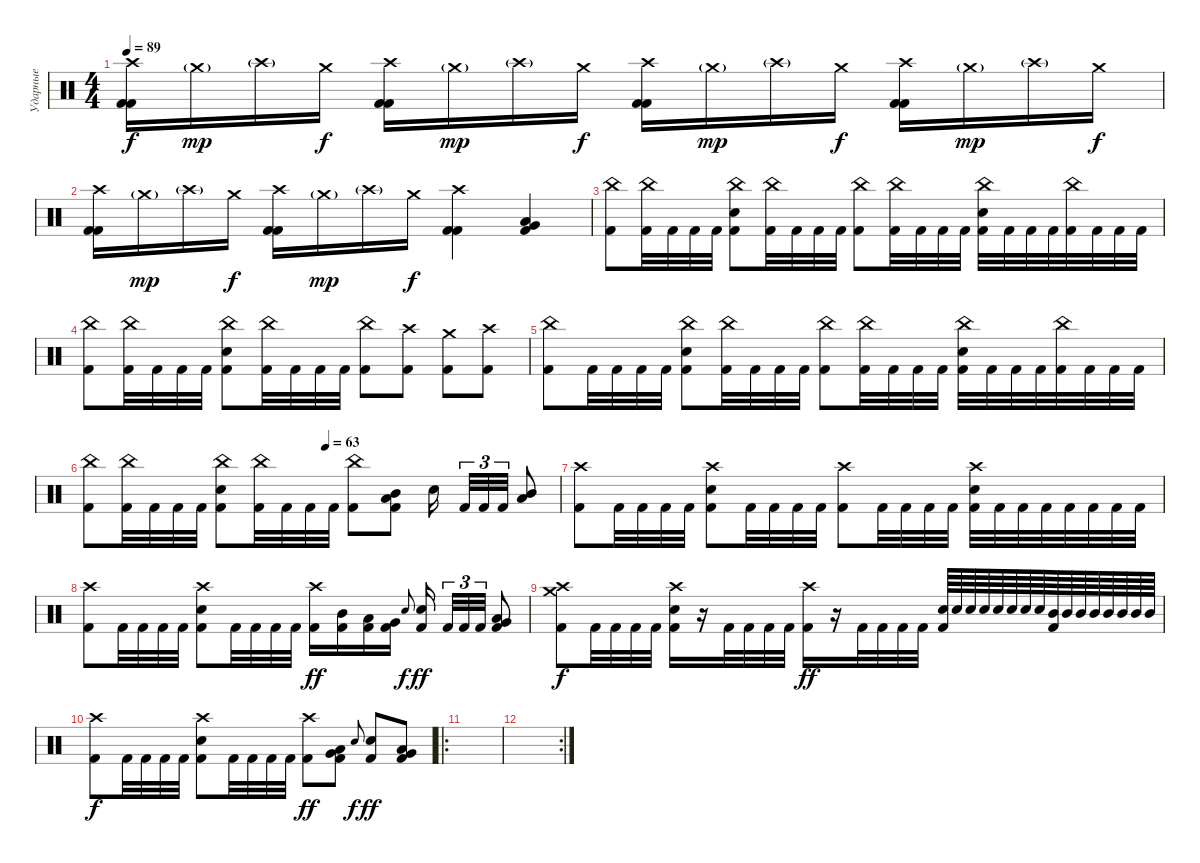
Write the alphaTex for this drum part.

\track ("Ударные" "Ударные") {instrument percussion}
\staff {score}
\articulation defaults
\ts (4 4)
\tempo 89
\clef neutral
\ks c
("Crash high (hit)" "Kick (hit) 2" "Kick (hit) 2").16{dy f} "Crash medium (hit)"{g}.16{dy mp} "Crash high (hit)"{g}.16 "Crash medium (hit)".16{dy f} ("Crash high (hit)" "Kick (hit) 2" "Kick (hit) 2").16 "Crash medium (hit)"{g}.16{dy mp} "Crash high (hit)"{g}.16 "Crash medium (hit)".16{dy f} ("Crash high (hit)" "Kick (hit) 2" "Kick (hit) 2").16 "Crash medium (hit)"{g}.16{dy mp} "Crash high (hit)"{g}.16 "Crash medium (hit)".16{dy f} ("Crash high (hit)" "Kick (hit) 2" "Kick (hit) 2").16 "Crash medium (hit)"{g}.16{dy mp} "Crash high (hit)"{g}.16 "Crash medium (hit)".16{dy f} |
("Crash high (hit)" "Kick (hit) 2" "Kick (hit) 2").16 "Crash medium (hit)"{g}.16{dy mp} "Crash high (hit)"{g}.16 "Crash medium (hit)".16{dy f} ("Crash high (hit)" "Kick (hit) 2" "Kick (hit) 2").16 "Crash medium (hit)"{g}.16{dy mp} "Crash high (hit)"{g}.16 "Crash medium (hit)".16{dy f} ("Crash high (hit)" "Kick (hit) 2" "Kick (hit) 2").4 ("Very Low Tom (hit)" "Low Floor Tom (hit)" "Kick (hit) 2").4 |
("China (hit)" "Kick (hit) 2").8 ("China (hit)" "Kick (hit) 2").32 "Kick (hit) 2".32 "Kick (hit) 2".32 "Kick (hit) 2".32 ("China (hit)" "Electric Snare (hit)" "Kick (hit) 2").8 ("China (hit)" "Kick (hit) 2").32 "Kick (hit) 2".32 "Kick (hit) 2".32 "Kick (hit) 2".32 ("China (hit)" "Kick (hit) 2").8 ("China (hit)" "Kick (hit) 2").32 "Kick (hit) 2".32 "Kick (hit) 2".32 "Kick (hit) 2".32 ("China (hit)" "Electric Snare (hit)" "Kick (hit) 2").32 "Kick (hit) 2".32 "Kick (hit) 2".32 "Kick (hit) 2".32 ("China (hit)" "Kick (hit) 2").32 "Kick (hit) 2".32 "Kick (hit) 2".32 "Kick (hit) 2".32 |
("China (hit)" "Kick (hit) 2").8 ("China (hit)" "Kick (hit) 2").32 "Kick (hit) 2".32 "Kick (hit) 2".32 "Kick (hit) 2".32 ("China (hit)" "Electric Snare (hit)" "Kick (hit) 2").8 ("China (hit)" "Kick (hit) 2").32 "Kick (hit) 2".32 "Kick (hit) 2".32 "Kick (hit) 2".32 ("China (hit)" "Kick (hit) 2").8 ("Crash high (hit)" "Kick (hit) 2").8 ("Crash medium (hit)" "Kick (hit) 2").8 ("Crash high (hit)" "Kick (hit) 2").8 |
("China (hit)" "Kick (hit) 2").8 "Kick (hit) 2".32 "Kick (hit) 2".32 "Kick (hit) 2".32 "Kick (hit) 2".32 ("China (hit)" "Electric Snare (hit)" "Kick (hit) 2").8 ("China (hit)" "Kick (hit) 2").32 "Kick (hit) 2".32 "Kick (hit) 2".32 "Kick (hit) 2".32 ("China (hit)" "Kick (hit) 2").8 ("China (hit)" "Kick (hit) 2").32 "Kick (hit) 2".32 "Kick (hit) 2".32 "Kick (hit) 2".32 ("China (hit)" "Electric Snare (hit)" "Kick (hit) 2").32 "Kick (hit) 2".32 "Kick (hit) 2".32 "Kick (hit) 2".32 ("China (hit)" "Kick (hit) 2").32 "Kick (hit) 2".32 "Kick (hit) 2".32 "Kick (hit) 2".32 |
\tempo (63 0.5)
("China (hit)" "Kick (hit) 2").8 ("China (hit)" "Kick (hit) 2").32 "Kick (hit) 2".32 "Kick (hit) 2".32 "Kick (hit) 2".32 ("China (hit)" "Electric Snare (hit)" "Kick (hit) 2").8 ("China (hit)" "Kick (hit) 2").32 "Kick (hit) 2".32 "Kick (hit) 2".32 "Kick (hit) 2".32 ("China (hit)" "Kick (hit) 2").8 ("Mid Tom (hit)" "Low Tom (hit)" "Kick (hit) 2").8 "Electric Snare (hit)".16{beam splitsecondary} "Kick (hit) 2".32{tu (3 2)} "Kick (hit) 2".32{tu (3 2)} "Kick (hit) 2".32{tu (3 2)} ("Mid Tom (hit)" "Low Tom (hit)").8 |
("Crash high (hit)" "Kick (hit) 2").8 "Kick (hit) 2".32 "Kick (hit) 2".32 "Kick (hit) 2".32 "Kick (hit) 2".32 ("Crash high (hit)" "Electric Snare (hit)" "Kick (hit) 2").8 "Kick (hit) 2".32 "Kick (hit) 2".32 "Kick (hit) 2".32 "Kick (hit) 2".32 ("Crash high (hit)" "Kick (hit) 2").8 "Kick (hit) 2".32 "Kick (hit) 2".32 "Kick (hit) 2".32 "Kick (hit) 2".32 ("Crash high (hit)" "Electric Snare (hit)" "Kick (hit) 2").32 "Kick (hit) 2".32 "Kick (hit) 2".32 "Kick (hit) 2".32 "Kick (hit) 2".32 "Kick (hit) 2".32 "Kick (hit) 2".32 "Kick (hit) 2".32 |
("Crash high (hit)" "Kick (hit) 2").8 "Kick (hit) 2".32 "Kick (hit) 2".32 "Kick (hit) 2".32 "Kick (hit) 2".32 ("Crash high (hit)" "Electric Snare (hit)" "Kick (hit) 2").8 "Kick (hit) 2".32 "Kick (hit) 2".32 "Kick (hit) 2".32 "Kick (hit) 2".32 ("Crash high (hit)" "Kick (hit) 2").16{dy ff} ("Mid Tom (hit)" "Kick (hit) 2").16 ("Low Tom (hit)" "Kick (hit) 2").16 ("Very Low Tom (hit)" "Kick (hit) 2").16 "Electric Snare (hit)"{sl x}.8{gr onbeat dy f} ("Electric Snare (hit)" "Kick (hit) 2").16{dy ff beam splitsecondary} "Kick (hit) 2".32{tu (3 2)} "Kick (hit) 2".32{tu (3 2)} "Kick (hit) 2".32{tu (3 2)} ("Very Low Tom (hit)" "Low Floor Tom (hit)" "Kick (hit) 2").8 |
("Crash high (hit)" "Crash medium (hit)" "Kick (hit) 2").8{dy f} "Kick (hit) 2".32 "Kick (hit) 2".32 "Kick (hit) 2".32 "Kick (hit) 2".32 ("Crash high (hit)" "Electric Snare (hit)" "Kick (hit) 2").16 r.16 "Kick (hit) 2".32 "Kick (hit) 2".32 "Kick (hit) 2".32 "Kick (hit) 2".32 ("Crash high (hit)" "Kick (hit) 2").16{dy ff} r.16 "Kick (hit) 2".32 "Kick (hit) 2".32 "Kick (hit) 2".32 "Kick (hit) 2".32 ("Electric Snare (hit)" "Kick (hit) 2").64 "Electric Snare (hit)".64 "Electric Snare (hit)".64 "Electric Snare (hit)".64 "Electric Snare (hit)".64 "Electric Snare (hit)".64 "Electric Snare (hit)".64 "Electric Snare (hit)".64 ("Mid Tom (hit)" "Kick (hit) 2").64 "Mid Tom (hit)".64 "Mid Tom (hit)".64 "Mid Tom (hit)".64 "Mid Tom (hit)".64 "Mid Tom (hit)".64 "Mid Tom (hit)".64 "Mid Tom (hit)".64 |
("Crash high (hit)" "Kick (hit) 2").8{dy f} "Kick (hit) 2".32 "Kick (hit) 2".32 "Kick (hit) 2".32 "Kick (hit) 2".32 ("Crash high (hit)" "Electric Snare (hit)" "Kick (hit) 2").8 "Kick (hit) 2".32 "Kick (hit) 2".32 "Kick (hit) 2".32 "Kick (hit) 2".32 ("Crash high (hit)" "Kick (hit) 2").8{dy ff} ("Low Tom (hit)" "Very Low Tom (hit)" "Kick (hit) 2").8 "Electric Snare (hit)"{sl x}.8{gr onbeat dy f} ("Electric Snare (hit)" "Kick (hit) 2").8{dy ff} ("Very Low Tom (hit)" "Low Floor Tom (hit)" "Kick (hit) 2").8 |
\ro
|
\rc 2
